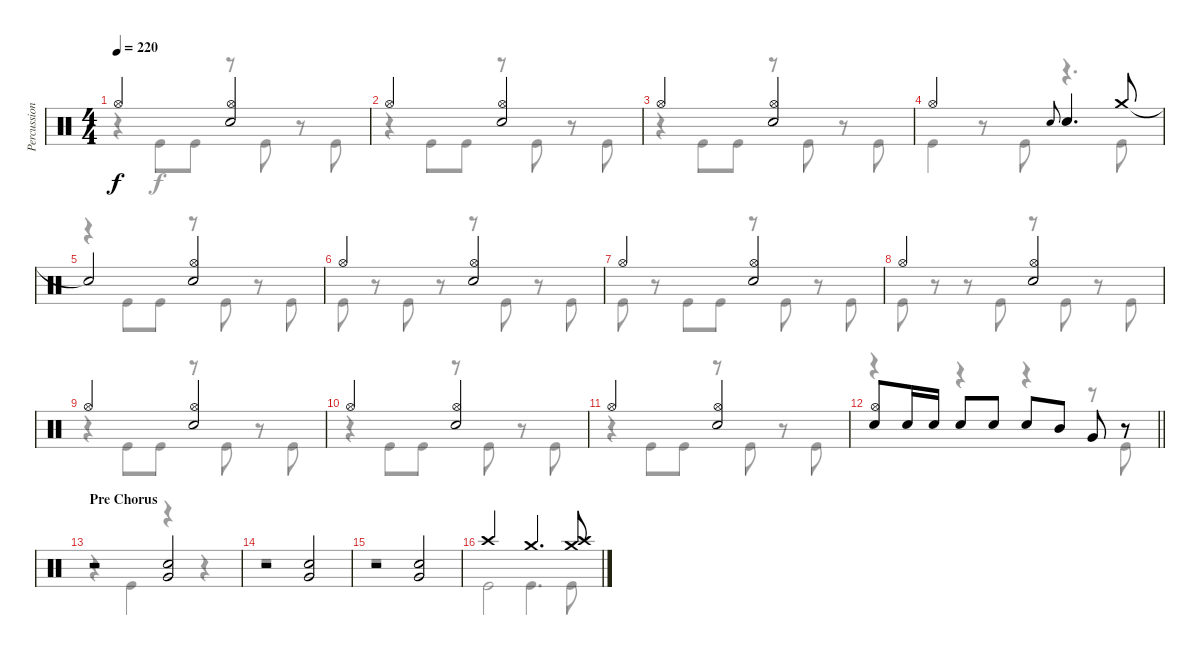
\track ("Percussion" "Percussion") {instrument percussion}
\staff {score}
\articulation defaults
\voice
\ts (4 4)
\tempo 220
\clef neutral
\ks c "Hi-Hat (open)".2{dy f}
("Hi-Hat (open)" "Electric Snare (hit)").2 |
"Hi-Hat (open)".2 ("Hi-Hat (open)" "Electric Snare (hit)").2 |
"Hi-Hat (open)".2 ("Hi-Hat (open)" "Electric Snare (hit)").2 |
"Hi-Hat (open)".2 "Electric Snare (hit)".8{gr onbeat} "Electric Snare (hit)".4{d} "Crash medium (hit)".8 |
"Snare (hit)"{t}.2 ("Hi-Hat (open)" "Electric Snare (hit)").2 |
"Hi-Hat (open)".2 ("Hi-Hat (open)" "Electric Snare (hit)").2 |
"Hi-Hat (open)".2 ("Hi-Hat (open)" "Electric Snare (hit)").2 |
"Hi-Hat (open)".2 ("Hi-Hat (open)" "Electric Snare (hit)").2 |
"Hi-Hat (open)".2 ("Hi-Hat (open)" "Electric Snare (hit)").2 |
"Hi-Hat (open)".2 ("Hi-Hat (open)" "Electric Snare (hit)").2 |
"Hi-Hat (open)".2 ("Hi-Hat (open)" "Electric Snare (hit)").2 |
\barLineRight lightlight
("Hi-Hat (open)" "Electric Snare (hit)").8 "Electric Snare (hit)".16 "Electric Snare (hit)".16 "Electric Snare (hit)".8 "Electric Snare (hit)".8 "Electric Snare (hit)".8 "Mid Tom (hit)".8 "Very Low Tom (hit)".8 r.8 |
\section ("" "Pre Chorus")
r.2 ("Very Low Tom (hit)" "Electric Snare (hit)").2 |
r.2 ("Very Low Tom (hit)" "Electric Snare (hit)").2 |
r.2 ("Very Low Tom (hit)" "Electric Snare (hit)").2 |
"Crash high (hit)".2 "Crash medium (hit)".4{d} ("Crash medium (hit)" "Crash high (hit)").8
\voice
\clef neutral
\ottava regular
\simile none
\ks c
r.4{dy f} "Kick (hit)".8 "Kick (hit)".8 r.8 "Kick (hit)".8 r.8 "Kick (hit)".8 |
r.4 "Kick (hit)".8 "Kick (hit)".8 r.8 "Kick (hit)".8 r.8 "Kick (hit)".8 |
r.4 "Kick (hit)".8 "Kick (hit)".8 r.8 "Kick (hit)".8 r.8 "Kick (hit)".8 |
"Kick (hit)".4 r.8 "Kick (hit)".8 r.4{d} "Kick (hit)".8 |
r.4 "Kick (hit)".8 "Kick (hit)".8 r.8 "Kick (hit)".8 r.8 "Kick (hit)".8 |
"Kick (hit)".8 r.8 "Kick (hit)".8 r.8 r.8 "Kick (hit)".8 r.8 "Kick (hit)".8 |
"Kick (hit)".8 r.8 "Kick (hit)".8 "Kick (hit)".8 r.8 "Kick (hit)".8 r.8 "Kick (hit)".8 |
"Kick (hit)".8 r.8 r.8 "Kick (hit)".8 r.8 "Kick (hit)".8 r.8 "Kick (hit)".8 |
r.4 "Kick (hit)".8 "Kick (hit)".8 r.8 "Kick (hit)".8 r.8 "Kick (hit)".8 |
r.4 "Kick (hit)".8 "Kick (hit)".8 r.8 "Kick (hit)".8 r.8 "Kick (hit)".8 |
r.4 "Kick (hit)".8 "Kick (hit)".8 r.8 "Kick (hit)".8 r.8 "Kick (hit)".8 |
\barLineRight lightlight
r.4 r.4 r.4 r.8 "Kick (hit)".8 |
r.4 "Kick (hit)".4 r.4 r.4 |
r.1 |
r.1 |
"Kick (hit)".2 "Kick (hit)".4{d} "Kick (hit)".8
